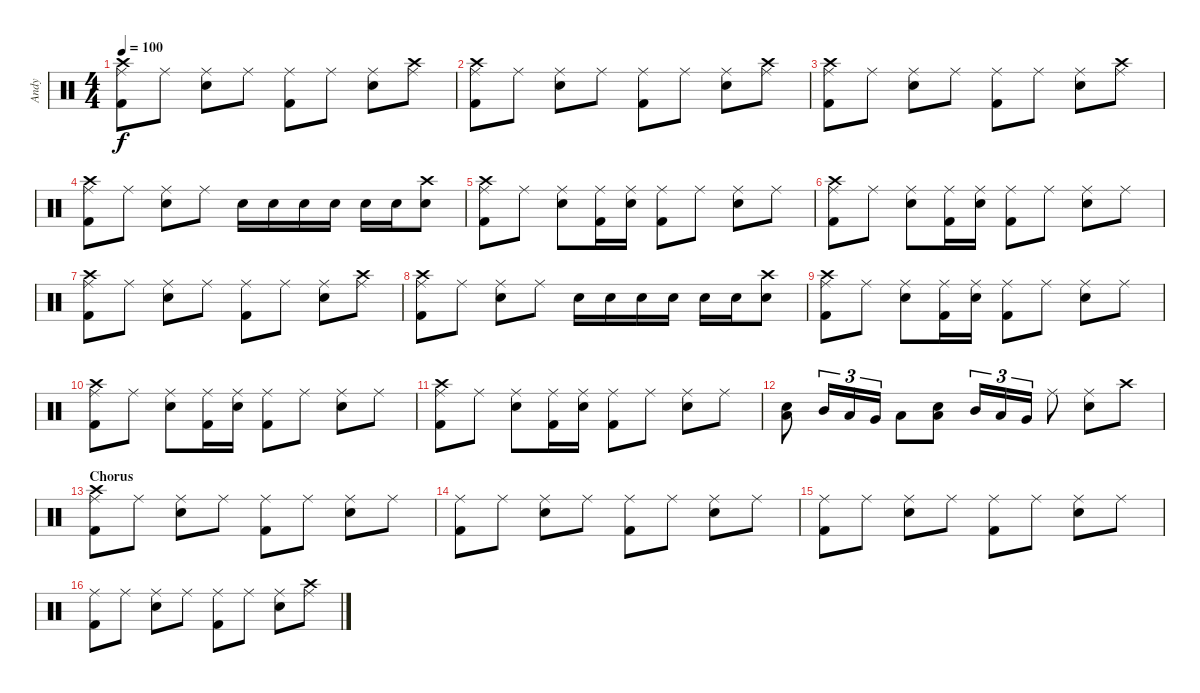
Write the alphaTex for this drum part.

\track ("Andy" "Andy") {instrument percussion}
\staff {score}
\articulation defaults
\ts (4 4)
\tempo 100
\clef neutral
\ks c
("Crash high (hit)" "Ride (middle)" "Kick (hit) 2").8{dy f} "Ride (middle)".8 ("Ride (middle)" "Snare (hit) 2").8 "Ride (middle)".8 ("Ride (middle)" "Kick (hit) 2").8 "Ride (middle)".8 ("Ride (middle)" "Snare (hit) 2").8 ("Crash high (hit)" "Ride (middle)").8 |
("Crash high (hit)" "Ride (middle)" "Kick (hit) 2").8 "Ride (middle)".8 ("Ride (middle)" "Snare (hit) 2").8 "Ride (middle)".8 ("Ride (middle)" "Kick (hit) 2").8 "Ride (middle)".8 ("Ride (middle)" "Snare (hit) 2").8 ("Crash high (hit)" "Ride (middle)").8 |
("Crash high (hit)" "Ride (middle)" "Kick (hit) 2").8 "Ride (middle)".8 ("Ride (middle)" "Snare (hit) 2").8 "Ride (middle)".8 ("Ride (middle)" "Kick (hit) 2").8 "Ride (middle)".8 ("Ride (middle)" "Snare (hit) 2").8 ("Crash high (hit)" "Ride (middle)").8 |
("Crash high (hit)" "Ride (middle)" "Kick (hit) 2").8 "Ride (middle)".8 ("Ride (middle)" "Snare (hit) 2").8 "Ride (middle)".8 "Snare (hit) 2".16 "Snare (hit) 2".16 "Snare (hit) 2".16 "Snare (hit) 2".16 "Snare (hit) 2".16 "Snare (hit) 2".16 ("Crash high (hit)" "Snare (hit) 2").8 |
("Crash high (hit)" "Ride (middle)" "Kick (hit) 2").8 "Ride (middle)".8 ("Ride (middle)" "Snare (hit) 2").8 ("Ride (middle)" "Kick (hit) 2").16 ("Ride (middle)" "Snare (hit) 2").16 ("Ride (middle)" "Kick (hit) 2").8 "Ride (middle)".8 ("Ride (middle)" "Snare (hit) 2").8 "Ride (middle)".8 |
("Crash high (hit)" "Ride (middle)" "Kick (hit) 2").8 "Ride (middle)".8 ("Ride (middle)" "Snare (hit) 2").8 ("Ride (middle)" "Kick (hit) 2").16 ("Ride (middle)" "Snare (hit) 2").16 ("Ride (middle)" "Kick (hit) 2").8 "Ride (middle)".8 ("Ride (middle)" "Snare (hit) 2").8 "Ride (middle)".8 |
("Crash high (hit)" "Ride (middle)" "Kick (hit) 2").8 "Ride (middle)".8 ("Ride (middle)" "Snare (hit) 2").8 "Ride (middle)".8 ("Ride (middle)" "Kick (hit) 2").8 "Ride (middle)".8 ("Ride (middle)" "Snare (hit) 2").8 ("Crash high (hit)" "Ride (middle)").8 |
("Crash high (hit)" "Ride (middle)" "Kick (hit) 2").8 "Ride (middle)".8 ("Ride (middle)" "Snare (hit) 2").8 "Ride (middle)".8 "Snare (hit) 2".16 "Snare (hit) 2".16 "Snare (hit) 2".16 "Snare (hit) 2".16 "Snare (hit) 2".16 "Snare (hit) 2".16 ("Crash high (hit)" "Snare (hit) 2").8 |
("Crash high (hit)" "Ride (middle)" "Kick (hit) 2").8 "Ride (middle)".8 ("Ride (middle)" "Snare (hit) 2").8 ("Ride (middle)" "Kick (hit) 2").16 ("Ride (middle)" "Snare (hit) 2").16 ("Ride (middle)" "Kick (hit) 2").8 "Ride (middle)".8 ("Ride (middle)" "Snare (hit) 2").8 "Ride (middle)".8 |
("Crash high (hit)" "Ride (middle)" "Kick (hit) 2").8 "Ride (middle)".8 ("Ride (middle)" "Snare (hit) 2").8 ("Ride (middle)" "Kick (hit) 2").16 ("Ride (middle)" "Snare (hit) 2").16 ("Ride (middle)" "Kick (hit) 2").8 "Ride (middle)".8 ("Ride (middle)" "Snare (hit) 2").8 "Ride (middle)".8 |
("Crash high (hit)" "Ride (middle)" "Kick (hit) 2").8 "Ride (middle)".8 ("Ride (middle)" "Snare (hit) 2").8 ("Ride (middle)" "Kick (hit) 2").16 ("Ride (middle)" "Snare (hit) 2").16 ("Ride (middle)" "Kick (hit) 2").8 "Ride (middle)".8 ("Ride (middle)" "Snare (hit) 2").8 "Ride (middle)".8 |
("Low Floor Tom (hit)" "Snare (hit) 2").8 "Mid Tom (hit)".16{tu (3 2)} "Low Tom (hit)".16{tu (3 2)} "Very Low Tom (hit)".16{tu (3 2)} "Low Floor Tom (hit)".8 ("Low Floor Tom (hit)" "Snare (hit) 2").8 "Mid Tom (hit)".16{tu (3 2)} "Low Tom (hit)".16{tu (3 2)} "Very Low Tom (hit)".16{tu (3 2)} "Ride (middle)".8 ("Ride (middle)" "Snare (hit) 2").8 "Crash high (hit)".8 |
\section ("" "Chorus")
("Crash high (hit)" "Ride (middle)" "Kick (hit) 2").8 "Ride (middle)".8 ("Ride (middle)" "Snare (hit) 2").8 "Ride (middle)".8 ("Ride (middle)" "Kick (hit) 2").8 "Ride (middle)".8 ("Ride (middle)" "Snare (hit) 2").8 "Ride (middle)".8 |
("Ride (middle)" "Kick (hit) 2").8 "Ride (middle)".8 ("Ride (middle)" "Snare (hit) 2").8 "Ride (middle)".8 ("Ride (middle)" "Kick (hit) 2").8 "Ride (middle)".8 ("Ride (middle)" "Snare (hit) 2").8 "Ride (middle)".8 |
("Ride (middle)" "Kick (hit) 2").8 "Ride (middle)".8 ("Ride (middle)" "Snare (hit) 2").8 "Ride (middle)".8 ("Ride (middle)" "Kick (hit) 2").8 "Ride (middle)".8 ("Ride (middle)" "Snare (hit) 2").8 "Ride (middle)".8 |
("Ride (middle)" "Kick (hit) 2").8 "Ride (middle)".8 ("Ride (middle)" "Snare (hit) 2").8 "Ride (middle)".8 ("Ride (middle)" "Kick (hit) 2").8 "Ride (middle)".8 ("Ride (middle)" "Snare (hit) 2").8 ("Crash high (hit)" "Ride (middle)").8
